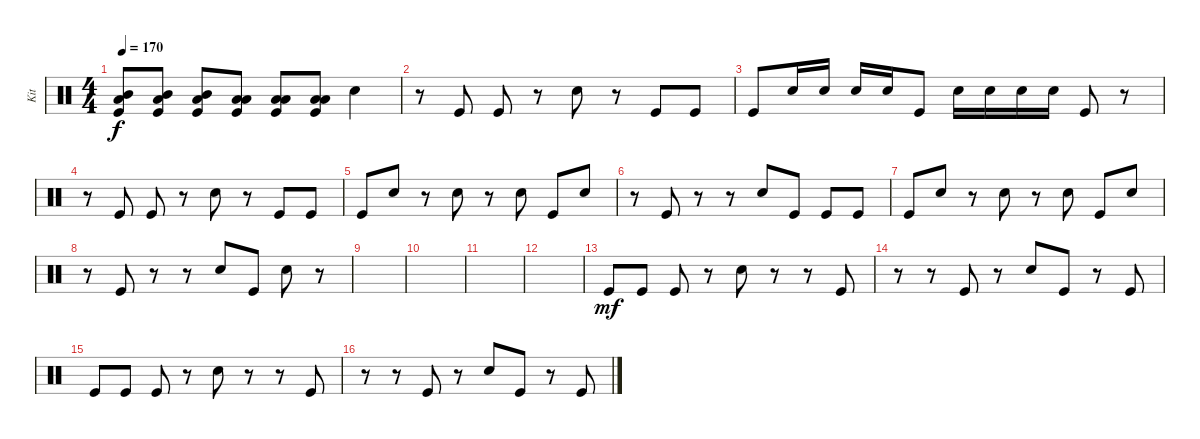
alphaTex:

\track ("Kit" "Kit") {instrument percussion}
\staff {score}
\articulation defaults
\ts (4 4)
\tempo 170
\clef neutral
\ks c
("Low Floor Tom (hit)" "Mid Tom (hit)" "Kick (hit)").8{dy f} ("Low Floor Tom (hit)" "Mid Tom (hit)" "Kick (hit)").8 ("Low Floor Tom (hit)" "Mid Tom (hit)" "Kick (hit)").8 ("Low Tom (hit)" "Low Floor Tom (hit)" "Kick (hit)").8 ("Low Tom (hit)" "Low Floor Tom (hit)" "Kick (hit)").8 ("Low Tom (hit)" "Low Floor Tom (hit)" "Kick (hit)").8 "Snare (hit) 2".4 |
r.8 "Kick (hit)".8 "Kick (hit)".8 r.8 "Snare (hit) 2".8 r.8 "Kick (hit)".8 "Kick (hit)".8 |
"Kick (hit)".8 "Snare (hit) 2".16 "Snare (hit) 2".16 "Snare (hit) 2".16 "Snare (hit) 2".16 "Kick (hit)".8 "Snare (hit) 2".16 "Snare (hit) 2".16 "Snare (hit) 2".16 "Snare (hit) 2".16 "Kick (hit)".8 r.8 |
r.8 "Kick (hit)".8 "Kick (hit)".8 r.8 "Snare (hit) 2".8 r.8 "Kick (hit)".8 "Kick (hit)".8 |
"Kick (hit)".8 "Snare (hit) 2".8 r.8 "Snare (hit) 2".8 r.8 "Snare (hit) 2".8 "Kick (hit)".8 "Snare (hit) 2".8 |
r.8 "Kick (hit)".8 r.8 r.8 "Snare (hit) 2".8 "Kick (hit)".8 "Kick (hit)".8 "Kick (hit)".8 |
"Kick (hit)".8 "Snare (hit) 2".8 r.8 "Snare (hit) 2".8 r.8 "Snare (hit) 2".8 "Kick (hit)".8 "Snare (hit) 2".8 |
r.8 "Kick (hit)".8 r.8 r.8 "Snare (hit) 2".8 "Kick (hit)".8 "Snare (hit) 2".8 r.8 |
|
|
|
|
"Kick (hit)".8{dy mf} "Kick (hit)".8 "Kick (hit)".8 r.8 "Snare (hit) 2".8 r.8 r.8 "Kick (hit)".8 |
r.8 r.8 "Kick (hit)".8 r.8 "Snare (hit) 2".8 "Kick (hit)".8 r.8 "Kick (hit)".8 |
"Kick (hit)".8 "Kick (hit)".8 "Kick (hit)".8 r.8 "Snare (hit) 2".8 r.8 r.8 "Kick (hit)".8 |
r.8 r.8 "Kick (hit)".8 r.8 "Snare (hit) 2".8 "Kick (hit)".8 r.8 "Kick (hit)".8
